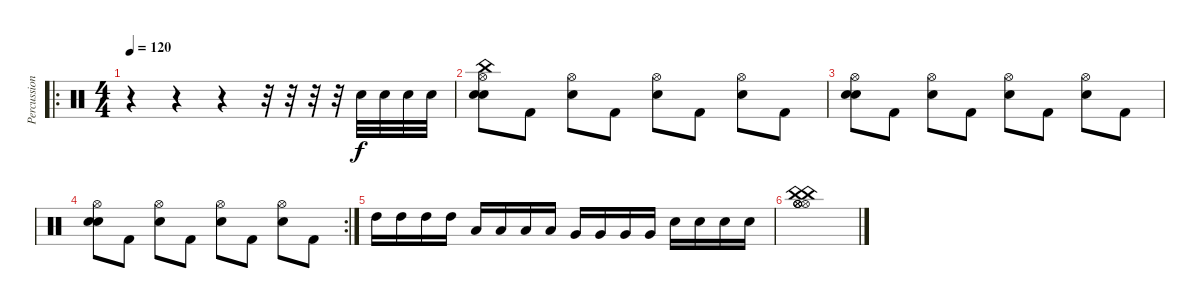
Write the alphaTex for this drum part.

\track ("Percussion" "Percussion") {instrument percussion}
\staff {score}
\articulation defaults
\ro
\ts (4 4)
\tempo 120
\clef neutral
\ks c
r.4{dy f} r.4 r.4 r.32 r.32 r.32 r.32 "Electric Snare (hit)".32 "Electric Snare (hit)".32 "Electric Snare (hit)".32 "Electric Snare (hit)".32 |
("Snare (hit) 2" "China (hit)" "Hi-Hat (open)" "Electric Snare (hit)").8 "Kick (hit) 2".8 ("Hi-Hat (open)" "Electric Snare (hit)").8 "Kick (hit) 2".8 ("Hi-Hat (open)" "Electric Snare (hit)").8 "Kick (hit) 2".8 ("Hi-Hat (open)" "Electric Snare (hit)").8 "Kick (hit) 2".8 |
("Snare (hit) 2" "Hi-Hat (open)" "Electric Snare (hit)").8 "Kick (hit) 2".8 ("Hi-Hat (open)" "Electric Snare (hit)").8 "Kick (hit) 2".8 ("Hi-Hat (open)" "Electric Snare (hit)").8 "Kick (hit) 2".8 ("Hi-Hat (open)" "Electric Snare (hit)").8 "Kick (hit) 2".8 |
\rc 2
("Snare (hit) 2" "Hi-Hat (open)" "Electric Snare (hit)").8 "Kick (hit) 2".8 ("Hi-Hat (open)" "Electric Snare (hit)").8 "Kick (hit) 2".8 ("Hi-Hat (open)" "Electric Snare (hit)").8 "Kick (hit) 2".8 ("Hi-Hat (open)" "Electric Snare (hit)").8 "Kick (hit) 2".8 |
"High Tom (hit)".16 "High Tom (hit)".16 "High Tom (hit)".16 "High Tom (hit)".16 "Low Tom (hit)".16 "Low Tom (hit)".16 "Low Tom (hit)".16 "Low Tom (hit)".16 "Very Low Tom (hit)".16 "Very Low Tom (hit)".16 "Very Low Tom (hit)".16 "Very Low Tom (hit)".16 "Electric Snare (hit)".16 "Electric Snare (hit)".16 "Electric Snare (hit)".16 "Electric Snare (hit)".16 |
("China (hit)" "China (hit)" "Hi-Hat (open)" "Hi-Hat (open)" "Hi-Hat (open)" "Hi-Hat (open)").1
